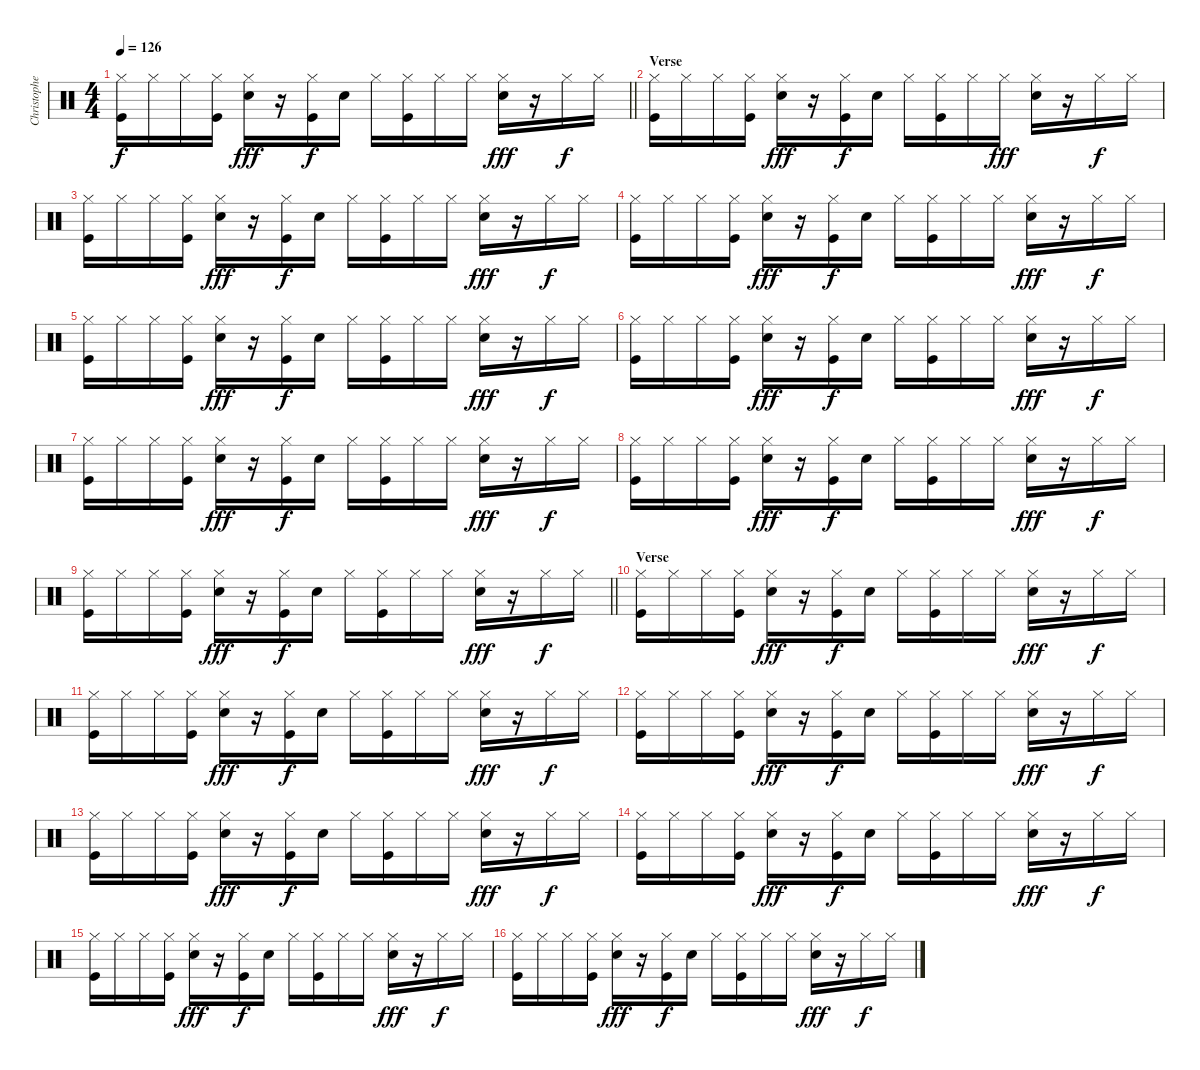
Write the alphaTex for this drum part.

\track ("Christopher - Drums" "Christophe") {instrument percussion}
\staff {score}
\articulation defaults
\ts (4 4)
\tempo 126
\clef neutral
\barLineRight lightlight
\ks c
("Hi-Hat (closed)" "Kick (hit)").16{dy f} "Hi-Hat (closed)".16 "Hi-Hat (closed)".16 ("Hi-Hat (closed)" "Kick (hit)").16 ("Hi-Hat (closed)" "Snare (hit) 2").16{dy fff} r.16 ("Hi-Hat (closed)" "Kick (hit)").16{dy f} "Snare (hit) 2".16 "Hi-Hat (closed)".16 ("Hi-Hat (closed)" "Kick (hit)").16 "Hi-Hat (closed)".16 "Hi-Hat (closed)".16 ("Hi-Hat (closed)" "Snare (hit) 2").16{dy fff} r.16 "Hi-Hat (closed)".16{dy f} "Hi-Hat (closed)".16 |
\section ("" "Verse")
("Hi-Hat (closed)" "Kick (hit)").16 "Hi-Hat (closed)".16 "Hi-Hat (closed)".16 ("Hi-Hat (closed)" "Kick (hit)").16 ("Hi-Hat (closed)" "Snare (hit) 2").16{dy fff} r.16 ("Hi-Hat (closed)" "Kick (hit)").16{dy f} "Snare (hit) 2".16 "Hi-Hat (closed)".16 ("Hi-Hat (closed)" "Kick (hit)").16 "Hi-Hat (closed)".16 "Hi-Hat (closed)".16{dy fff} ("Hi-Hat (closed)" "Snare (hit) 2").16 r.16 "Hi-Hat (closed)".16{dy f} "Hi-Hat (closed)".16 |
("Hi-Hat (closed)" "Kick (hit)").16 "Hi-Hat (closed)".16 "Hi-Hat (closed)".16 ("Hi-Hat (closed)" "Kick (hit)").16 ("Hi-Hat (closed)" "Snare (hit) 2").16{dy fff} r.16 ("Hi-Hat (closed)" "Kick (hit)").16{dy f} "Snare (hit) 2".16 "Hi-Hat (closed)".16 ("Hi-Hat (closed)" "Kick (hit)").16 "Hi-Hat (closed)".16 "Hi-Hat (closed)".16 ("Hi-Hat (closed)" "Snare (hit) 2").16{dy fff} r.16 "Hi-Hat (closed)".16{dy f} "Hi-Hat (closed)".16 |
("Hi-Hat (closed)" "Kick (hit)").16 "Hi-Hat (closed)".16 "Hi-Hat (closed)".16 ("Hi-Hat (closed)" "Kick (hit)").16 ("Hi-Hat (closed)" "Snare (hit) 2").16{dy fff} r.16 ("Hi-Hat (closed)" "Kick (hit)").16{dy f} "Snare (hit) 2".16 "Hi-Hat (closed)".16 ("Hi-Hat (closed)" "Kick (hit)").16 "Hi-Hat (closed)".16 "Hi-Hat (closed)".16 ("Hi-Hat (closed)" "Snare (hit) 2").16{dy fff} r.16 "Hi-Hat (closed)".16{dy f} "Hi-Hat (closed)".16 |
("Hi-Hat (closed)" "Kick (hit)").16 "Hi-Hat (closed)".16 "Hi-Hat (closed)".16 ("Hi-Hat (closed)" "Kick (hit)").16 ("Hi-Hat (closed)" "Snare (hit) 2").16{dy fff} r.16 ("Hi-Hat (closed)" "Kick (hit)").16{dy f} "Snare (hit) 2".16 "Hi-Hat (closed)".16 ("Hi-Hat (closed)" "Kick (hit)").16 "Hi-Hat (closed)".16 "Hi-Hat (closed)".16 ("Hi-Hat (closed)" "Snare (hit) 2").16{dy fff} r.16 "Hi-Hat (closed)".16{dy f} "Hi-Hat (closed)".16 |
("Hi-Hat (closed)" "Kick (hit)").16 "Hi-Hat (closed)".16 "Hi-Hat (closed)".16 ("Hi-Hat (closed)" "Kick (hit)").16 ("Hi-Hat (closed)" "Snare (hit) 2").16{dy fff} r.16 ("Hi-Hat (closed)" "Kick (hit)").16{dy f} "Snare (hit) 2".16 "Hi-Hat (closed)".16 ("Hi-Hat (closed)" "Kick (hit)").16 "Hi-Hat (closed)".16 "Hi-Hat (closed)".16 ("Hi-Hat (closed)" "Snare (hit) 2").16{dy fff} r.16 "Hi-Hat (closed)".16{dy f} "Hi-Hat (closed)".16 |
("Hi-Hat (closed)" "Kick (hit)").16 "Hi-Hat (closed)".16 "Hi-Hat (closed)".16 ("Hi-Hat (closed)" "Kick (hit)").16 ("Hi-Hat (closed)" "Snare (hit) 2").16{dy fff} r.16 ("Hi-Hat (closed)" "Kick (hit)").16{dy f} "Snare (hit) 2".16 "Hi-Hat (closed)".16 ("Hi-Hat (closed)" "Kick (hit)").16 "Hi-Hat (closed)".16 "Hi-Hat (closed)".16 ("Hi-Hat (closed)" "Snare (hit) 2").16{dy fff} r.16 "Hi-Hat (closed)".16{dy f} "Hi-Hat (closed)".16 |
("Hi-Hat (closed)" "Kick (hit)").16 "Hi-Hat (closed)".16 "Hi-Hat (closed)".16 ("Hi-Hat (closed)" "Kick (hit)").16 ("Hi-Hat (closed)" "Snare (hit) 2").16{dy fff} r.16 ("Hi-Hat (closed)" "Kick (hit)").16{dy f} "Snare (hit) 2".16 "Hi-Hat (closed)".16 ("Hi-Hat (closed)" "Kick (hit)").16 "Hi-Hat (closed)".16 "Hi-Hat (closed)".16 ("Hi-Hat (closed)" "Snare (hit) 2").16{dy fff} r.16 "Hi-Hat (closed)".16{dy f} "Hi-Hat (closed)".16 |
\barLineRight lightlight
("Hi-Hat (closed)" "Kick (hit)").16 "Hi-Hat (closed)".16 "Hi-Hat (closed)".16 ("Hi-Hat (closed)" "Kick (hit)").16 ("Hi-Hat (closed)" "Snare (hit) 2").16{dy fff} r.16 ("Hi-Hat (closed)" "Kick (hit)").16{dy f} "Snare (hit) 2".16 "Hi-Hat (closed)".16 ("Hi-Hat (closed)" "Kick (hit)").16 "Hi-Hat (closed)".16 "Hi-Hat (closed)".16 ("Hi-Hat (closed)" "Snare (hit) 2").16{dy fff} r.16 "Hi-Hat (closed)".16{dy f} "Hi-Hat (closed)".16 |
\section ("" "Verse")
("Hi-Hat (closed)" "Kick (hit)").16 "Hi-Hat (closed)".16 "Hi-Hat (closed)".16 ("Hi-Hat (closed)" "Kick (hit)").16 ("Hi-Hat (closed)" "Snare (hit) 2").16{dy fff} r.16 ("Hi-Hat (closed)" "Kick (hit)").16{dy f} "Snare (hit) 2".16 "Hi-Hat (closed)".16 ("Hi-Hat (closed)" "Kick (hit)").16 "Hi-Hat (closed)".16 "Hi-Hat (closed)".16 ("Hi-Hat (closed)" "Snare (hit) 2").16{dy fff} r.16 "Hi-Hat (closed)".16{dy f} "Hi-Hat (closed)".16 |
("Hi-Hat (closed)" "Kick (hit)").16 "Hi-Hat (closed)".16 "Hi-Hat (closed)".16 ("Hi-Hat (closed)" "Kick (hit)").16 ("Hi-Hat (closed)" "Snare (hit) 2").16{dy fff} r.16 ("Hi-Hat (closed)" "Kick (hit)").16{dy f} "Snare (hit) 2".16 "Hi-Hat (closed)".16 ("Hi-Hat (closed)" "Kick (hit)").16 "Hi-Hat (closed)".16 "Hi-Hat (closed)".16 ("Hi-Hat (closed)" "Snare (hit) 2").16{dy fff} r.16 "Hi-Hat (closed)".16{dy f} "Hi-Hat (closed)".16 |
("Hi-Hat (closed)" "Kick (hit)").16 "Hi-Hat (closed)".16 "Hi-Hat (closed)".16 ("Hi-Hat (closed)" "Kick (hit)").16 ("Hi-Hat (closed)" "Snare (hit) 2").16{dy fff} r.16 ("Hi-Hat (closed)" "Kick (hit)").16{dy f} "Snare (hit) 2".16 "Hi-Hat (closed)".16 ("Hi-Hat (closed)" "Kick (hit)").16 "Hi-Hat (closed)".16 "Hi-Hat (closed)".16 ("Hi-Hat (closed)" "Snare (hit) 2").16{dy fff} r.16 "Hi-Hat (closed)".16{dy f} "Hi-Hat (closed)".16 |
("Hi-Hat (closed)" "Kick (hit)").16 "Hi-Hat (closed)".16 "Hi-Hat (closed)".16 ("Hi-Hat (closed)" "Kick (hit)").16 ("Hi-Hat (closed)" "Snare (hit) 2").16{dy fff} r.16 ("Hi-Hat (closed)" "Kick (hit)").16{dy f} "Snare (hit) 2".16 "Hi-Hat (closed)".16 ("Hi-Hat (closed)" "Kick (hit)").16 "Hi-Hat (closed)".16 "Hi-Hat (closed)".16 ("Hi-Hat (closed)" "Snare (hit) 2").16{dy fff} r.16 "Hi-Hat (closed)".16{dy f} "Hi-Hat (closed)".16 |
("Hi-Hat (closed)" "Kick (hit)").16 "Hi-Hat (closed)".16 "Hi-Hat (closed)".16 ("Hi-Hat (closed)" "Kick (hit)").16 ("Hi-Hat (closed)" "Snare (hit) 2").16{dy fff} r.16 ("Hi-Hat (closed)" "Kick (hit)").16{dy f} "Snare (hit) 2".16 "Hi-Hat (closed)".16 ("Hi-Hat (closed)" "Kick (hit)").16 "Hi-Hat (closed)".16 "Hi-Hat (closed)".16 ("Hi-Hat (closed)" "Snare (hit) 2").16{dy fff} r.16 "Hi-Hat (closed)".16{dy f} "Hi-Hat (closed)".16 |
("Hi-Hat (closed)" "Kick (hit)").16 "Hi-Hat (closed)".16 "Hi-Hat (closed)".16 ("Hi-Hat (closed)" "Kick (hit)").16 ("Hi-Hat (closed)" "Snare (hit) 2").16{dy fff} r.16 ("Hi-Hat (closed)" "Kick (hit)").16{dy f} "Snare (hit) 2".16 "Hi-Hat (closed)".16 ("Hi-Hat (closed)" "Kick (hit)").16 "Hi-Hat (closed)".16 "Hi-Hat (closed)".16 ("Hi-Hat (closed)" "Snare (hit) 2").16{dy fff} r.16 "Hi-Hat (closed)".16{dy f} "Hi-Hat (closed)".16 |
("Hi-Hat (closed)" "Kick (hit)").16 "Hi-Hat (closed)".16 "Hi-Hat (closed)".16 ("Hi-Hat (closed)" "Kick (hit)").16 ("Hi-Hat (closed)" "Snare (hit) 2").16{dy fff} r.16 ("Hi-Hat (closed)" "Kick (hit)").16{dy f} "Snare (hit) 2".16 "Hi-Hat (closed)".16 ("Hi-Hat (closed)" "Kick (hit)").16 "Hi-Hat (closed)".16 "Hi-Hat (closed)".16 ("Hi-Hat (closed)" "Snare (hit) 2").16{dy fff} r.16 "Hi-Hat (closed)".16{dy f} "Hi-Hat (closed)".16
